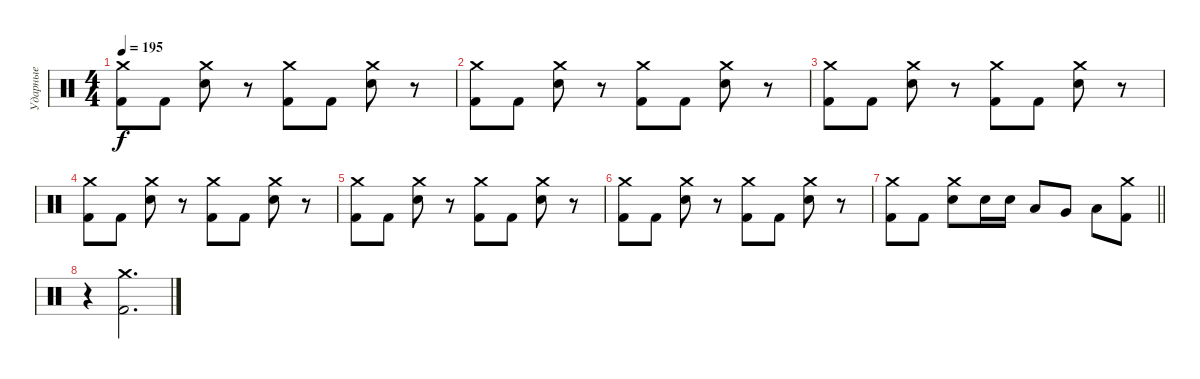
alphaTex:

\track ("Ударные" "Ударные") {instrument percussion}
\staff {score}
\articulation defaults
\ts (4 4)
\tempo 195
\clef neutral
\ks c
("Crash medium (hit)" "Kick (hit) 2").8{dy f} "Kick (hit) 2".8 ("Crash medium (hit)" "Electric Snare (hit)").8 r.8 ("Crash medium (hit)" "Kick (hit) 2").8 "Kick (hit) 2".8 ("Crash medium (hit)" "Electric Snare (hit)").8 r.8 |
("Crash medium (hit)" "Kick (hit) 2").8 "Kick (hit) 2".8 ("Crash medium (hit)" "Electric Snare (hit)").8 r.8 ("Crash medium (hit)" "Kick (hit) 2").8 "Kick (hit) 2".8 ("Crash medium (hit)" "Electric Snare (hit)").8 r.8 |
("Crash medium (hit)" "Kick (hit) 2").8 "Kick (hit) 2".8 ("Crash medium (hit)" "Electric Snare (hit)").8 r.8 ("Crash medium (hit)" "Kick (hit) 2").8 "Kick (hit) 2".8 ("Crash medium (hit)" "Electric Snare (hit)").8 r.8 |
("Crash medium (hit)" "Kick (hit) 2").8 "Kick (hit) 2".8 ("Crash medium (hit)" "Electric Snare (hit)").8 r.8 ("Crash medium (hit)" "Kick (hit) 2").8 "Kick (hit) 2".8 ("Crash medium (hit)" "Electric Snare (hit)").8 r.8 |
("Crash medium (hit)" "Kick (hit) 2").8 "Kick (hit) 2".8 ("Crash medium (hit)" "Electric Snare (hit)").8 r.8 ("Crash medium (hit)" "Kick (hit) 2").8 "Kick (hit) 2".8 ("Crash medium (hit)" "Electric Snare (hit)").8 r.8 |
("Crash medium (hit)" "Kick (hit) 2").8 "Kick (hit) 2".8 ("Crash medium (hit)" "Electric Snare (hit)").8 r.8 ("Crash medium (hit)" "Kick (hit) 2").8 "Kick (hit) 2".8 ("Crash medium (hit)" "Electric Snare (hit)").8 r.8 |
\barLineRight lightlight
("Crash medium (hit)" "Kick (hit) 2").8 "Kick (hit) 2".8 ("Crash medium (hit)" "Electric Snare (hit)").8 "Electric Snare (hit)".16 "Electric Snare (hit)".16 "Low Tom (hit)".8 "Very Low Tom (hit)".8 "Low Tom (hit)".8 ("Crash medium (hit)" "Kick (hit) 2").8 |
r.4 ("Crash medium (hit)" "Kick (hit) 2").2{d}
